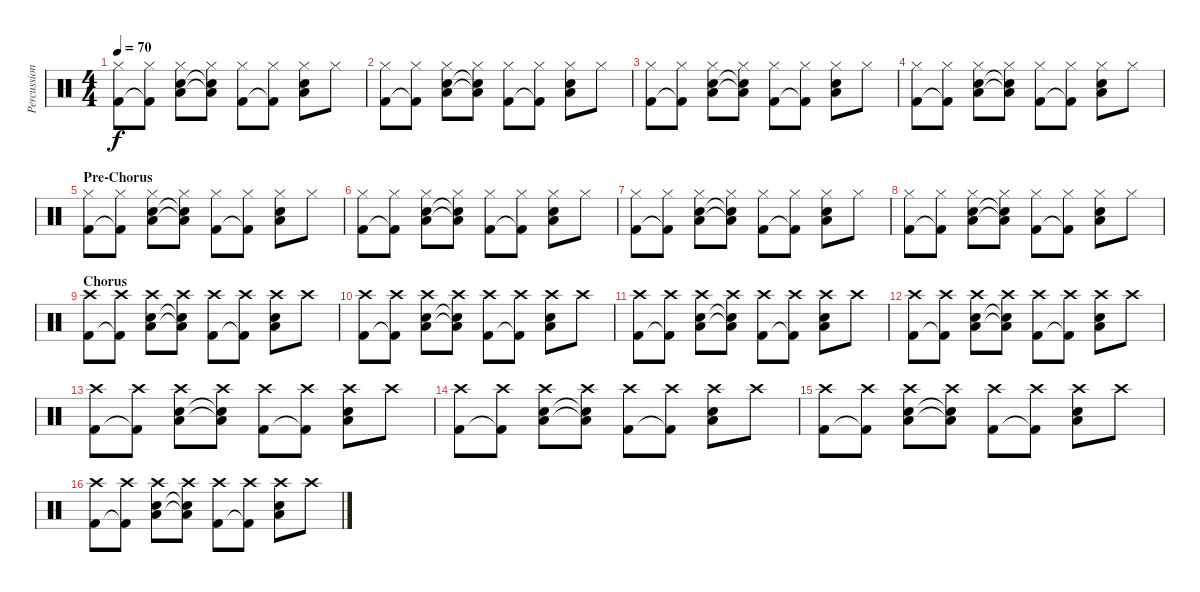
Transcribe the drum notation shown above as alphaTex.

\track ("Percussions" "Percussion") {instrument percussion}
\staff {score}
\articulation defaults
\ts (4 4)
\tempo 70
\clef neutral
\ks c
("Hi-Hat (closed)" "Kick (hit) 2").8{dy f} ("Hi-Hat (closed)" "Kick (hit) 2"{t}).8 ("Hi-Hat (closed)" "Electric Snare (hit)" "Low Tom (hit)").8 ("Hi-Hat (closed)" "Electric Snare (hit)"{t} "Low Tom (hit)"{t}).8 ("Hi-Hat (closed)" "Kick (hit) 2").8 ("Hi-Hat (closed)" "Kick (hit) 2"{t}).8 ("Hi-Hat (closed)" "Electric Snare (hit)" "Low Tom (hit)").8 "Hi-Hat (closed)".8 |
("Hi-Hat (closed)" "Kick (hit) 2").8 ("Hi-Hat (closed)" "Kick (hit) 2"{t}).8 ("Hi-Hat (closed)" "Electric Snare (hit)" "Low Tom (hit)").8 ("Hi-Hat (closed)" "Electric Snare (hit)"{t} "Low Tom (hit)"{t}).8 ("Hi-Hat (closed)" "Kick (hit) 2").8 ("Hi-Hat (closed)" "Kick (hit) 2"{t}).8 ("Hi-Hat (closed)" "Electric Snare (hit)" "Low Tom (hit)").8 "Hi-Hat (closed)".8 |
("Hi-Hat (closed)" "Kick (hit) 2").8 ("Hi-Hat (closed)" "Kick (hit) 2"{t}).8 ("Hi-Hat (closed)" "Electric Snare (hit)" "Low Tom (hit)").8 ("Hi-Hat (closed)" "Electric Snare (hit)"{t} "Low Tom (hit)"{t}).8 ("Hi-Hat (closed)" "Kick (hit) 2").8 ("Hi-Hat (closed)" "Kick (hit) 2"{t}).8 ("Hi-Hat (closed)" "Electric Snare (hit)" "Low Tom (hit)").8 "Hi-Hat (closed)".8 |
("Hi-Hat (closed)" "Kick (hit) 2").8 ("Hi-Hat (closed)" "Kick (hit) 2"{t}).8 ("Hi-Hat (closed)" "Electric Snare (hit)" "Low Tom (hit)").8 ("Hi-Hat (closed)" "Electric Snare (hit)"{t} "Low Tom (hit)"{t}).8 ("Hi-Hat (closed)" "Kick (hit) 2").8 ("Hi-Hat (closed)" "Kick (hit) 2"{t}).8 ("Hi-Hat (closed)" "Electric Snare (hit)" "Low Tom (hit)").8 "Hi-Hat (closed)".8 |
\section ("" "Pre-Chorus")
("Hi-Hat (closed)" "Kick (hit) 2").8 ("Hi-Hat (closed)" "Kick (hit) 2"{t}).8 ("Hi-Hat (closed)" "Electric Snare (hit)" "Low Tom (hit)").8 ("Hi-Hat (closed)" "Electric Snare (hit)"{t} "Low Tom (hit)"{t}).8 ("Hi-Hat (closed)" "Kick (hit) 2").8 ("Hi-Hat (closed)" "Kick (hit) 2"{t}).8 ("Hi-Hat (closed)" "Electric Snare (hit)" "Low Tom (hit)").8 "Hi-Hat (closed)".8 |
("Hi-Hat (closed)" "Kick (hit) 2").8 ("Hi-Hat (closed)" "Kick (hit) 2"{t}).8 ("Hi-Hat (closed)" "Electric Snare (hit)" "Low Tom (hit)").8 ("Hi-Hat (closed)" "Electric Snare (hit)"{t} "Low Tom (hit)"{t}).8 ("Hi-Hat (closed)" "Kick (hit) 2").8 ("Hi-Hat (closed)" "Kick (hit) 2"{t}).8 ("Hi-Hat (closed)" "Electric Snare (hit)" "Low Tom (hit)").8 "Hi-Hat (closed)".8 |
("Hi-Hat (closed)" "Kick (hit) 2").8 ("Hi-Hat (closed)" "Kick (hit) 2"{t}).8 ("Hi-Hat (closed)" "Electric Snare (hit)" "Low Tom (hit)").8 ("Hi-Hat (closed)" "Electric Snare (hit)"{t} "Low Tom (hit)"{t}).8 ("Hi-Hat (closed)" "Kick (hit) 2").8 ("Hi-Hat (closed)" "Kick (hit) 2"{t}).8 ("Hi-Hat (closed)" "Electric Snare (hit)" "Low Tom (hit)").8 "Hi-Hat (closed)".8 |
("Hi-Hat (closed)" "Kick (hit) 2").8 ("Hi-Hat (closed)" "Kick (hit) 2"{t}).8 ("Hi-Hat (closed)" "Electric Snare (hit)" "Low Tom (hit)").8 ("Hi-Hat (closed)" "Electric Snare (hit)"{t} "Low Tom (hit)"{t}).8 ("Hi-Hat (closed)" "Kick (hit) 2").8 ("Hi-Hat (closed)" "Kick (hit) 2"{t}).8 ("Hi-Hat (closed)" "Electric Snare (hit)" "Low Tom (hit)").8 "Hi-Hat (closed)".8 |
\section ("" "Chorus ")
("Crash high (hit)" "Kick (hit) 2").8 ("Crash high (hit)" "Kick (hit) 2"{t}).8 ("Crash high (hit)" "Electric Snare (hit)" "Low Tom (hit)").8 ("Crash high (hit)" "Electric Snare (hit)"{t} "Low Tom (hit)"{t}).8 ("Crash high (hit)" "Kick (hit) 2").8 ("Crash high (hit)" "Kick (hit) 2"{t}).8 ("Crash high (hit)" "Electric Snare (hit)" "Low Tom (hit)").8 "Crash high (hit)".8 |
("Crash high (hit)" "Kick (hit) 2").8 ("Crash high (hit)" "Kick (hit) 2"{t}).8 ("Crash high (hit)" "Electric Snare (hit)" "Low Tom (hit)").8 ("Crash high (hit)" "Electric Snare (hit)"{t} "Low Tom (hit)"{t}).8 ("Crash high (hit)" "Kick (hit) 2").8 ("Crash high (hit)" "Kick (hit) 2"{t}).8 ("Crash high (hit)" "Electric Snare (hit)" "Low Tom (hit)").8 "Crash high (hit)".8 |
("Crash high (hit)" "Kick (hit) 2").8 ("Crash high (hit)" "Kick (hit) 2"{t}).8 ("Crash high (hit)" "Electric Snare (hit)" "Low Tom (hit)").8 ("Crash high (hit)" "Electric Snare (hit)"{t} "Low Tom (hit)"{t}).8 ("Crash high (hit)" "Kick (hit) 2").8 ("Crash high (hit)" "Kick (hit) 2"{t}).8 ("Crash high (hit)" "Electric Snare (hit)" "Low Tom (hit)").8 "Crash high (hit)".8 |
("Crash high (hit)" "Kick (hit) 2").8 ("Crash high (hit)" "Kick (hit) 2"{t}).8 ("Crash high (hit)" "Electric Snare (hit)" "Low Tom (hit)").8 ("Crash high (hit)" "Electric Snare (hit)"{t} "Low Tom (hit)"{t}).8 ("Crash high (hit)" "Kick (hit) 2").8 ("Crash high (hit)" "Kick (hit) 2"{t}).8 ("Crash high (hit)" "Electric Snare (hit)" "Low Tom (hit)").8 "Crash high (hit)".8 |
("Crash high (hit)" "Kick (hit) 2").8 ("Crash high (hit)" "Kick (hit) 2"{t}).8 ("Crash high (hit)" "Electric Snare (hit)" "Low Tom (hit)").8 ("Crash high (hit)" "Electric Snare (hit)"{t} "Low Tom (hit)"{t}).8 ("Crash high (hit)" "Kick (hit) 2").8 ("Crash high (hit)" "Kick (hit) 2"{t}).8 ("Crash high (hit)" "Electric Snare (hit)" "Low Tom (hit)").8 "Crash high (hit)".8 |
("Crash high (hit)" "Kick (hit) 2").8 ("Crash high (hit)" "Kick (hit) 2"{t}).8 ("Crash high (hit)" "Electric Snare (hit)" "Low Tom (hit)").8 ("Crash high (hit)" "Electric Snare (hit)"{t} "Low Tom (hit)"{t}).8 ("Crash high (hit)" "Kick (hit) 2").8 ("Crash high (hit)" "Kick (hit) 2"{t}).8 ("Crash high (hit)" "Electric Snare (hit)" "Low Tom (hit)").8 "Crash high (hit)".8 |
("Crash high (hit)" "Kick (hit) 2").8 ("Crash high (hit)" "Kick (hit) 2"{t}).8 ("Crash high (hit)" "Electric Snare (hit)" "Low Tom (hit)").8 ("Crash high (hit)" "Electric Snare (hit)"{t} "Low Tom (hit)"{t}).8 ("Crash high (hit)" "Kick (hit) 2").8 ("Crash high (hit)" "Kick (hit) 2"{t}).8 ("Crash high (hit)" "Electric Snare (hit)" "Low Tom (hit)").8 "Crash high (hit)".8 |
("Crash high (hit)" "Kick (hit) 2").8 ("Crash high (hit)" "Kick (hit) 2"{t}).8 ("Crash high (hit)" "Electric Snare (hit)" "Low Tom (hit)").8 ("Crash high (hit)" "Electric Snare (hit)"{t} "Low Tom (hit)"{t}).8 ("Crash high (hit)" "Kick (hit) 2").8 ("Crash high (hit)" "Kick (hit) 2"{t}).8 ("Crash high (hit)" "Electric Snare (hit)" "Low Tom (hit)").8 "Crash high (hit)".8
